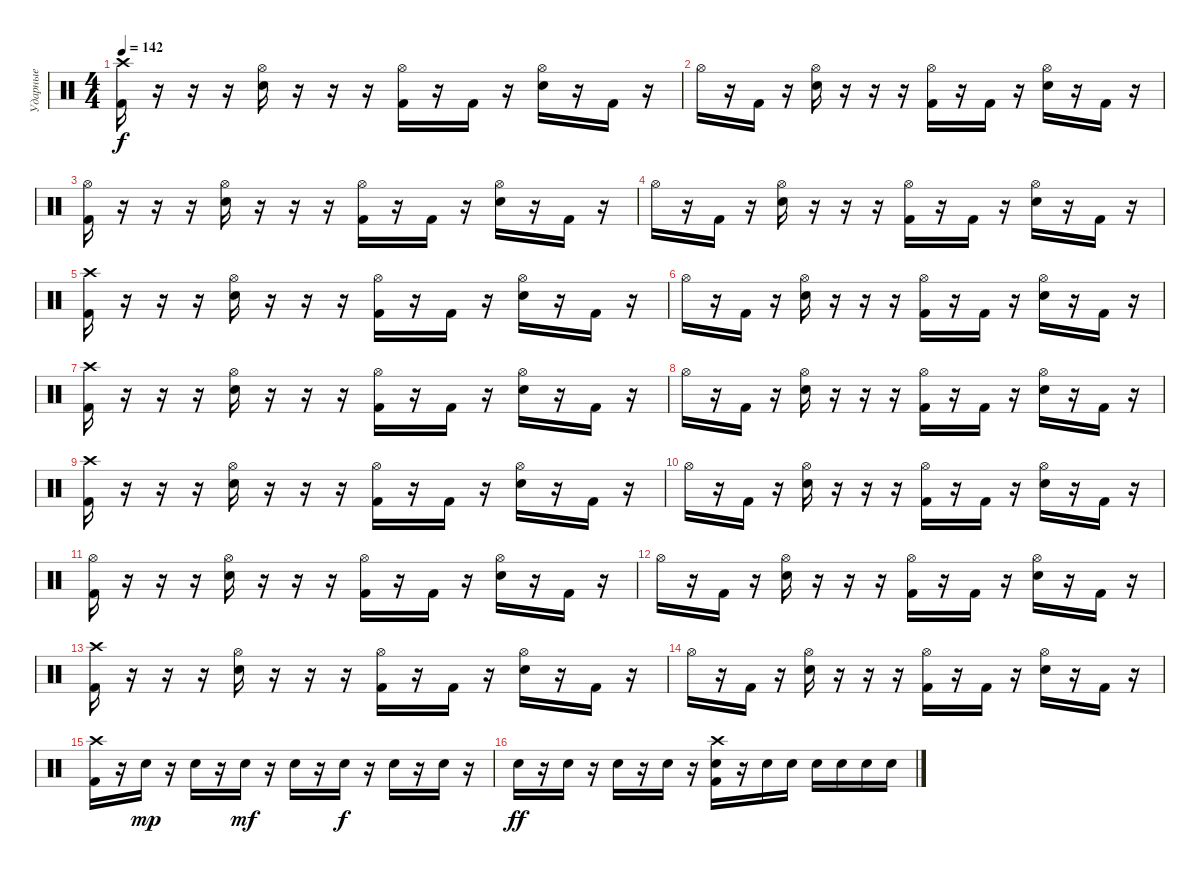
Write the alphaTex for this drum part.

\track ("Ударные" "Ударные") {instrument percussion}
\staff {score}
\articulation defaults
\ts (4 4)
\tempo 142
\clef neutral
\ks c
("Crash high (hit)" "Kick (hit) 2").16{dy f} r.16 r.16 r.16 ("Hi-Hat (open)" "Electric Snare (hit)").16 r.16 r.16 r.16 ("Hi-Hat (open)" "Kick (hit) 2").16 r.16 "Kick (hit) 2".16 r.16 ("Hi-Hat (open)" "Electric Snare (hit)").16 r.16 "Kick (hit) 2".16 r.16 |
"Hi-Hat (open)".16 r.16 "Kick (hit) 2".16 r.16 ("Hi-Hat (open)" "Electric Snare (hit)").16 r.16 r.16 r.16 ("Hi-Hat (open)" "Kick (hit) 2").16 r.16 "Kick (hit) 2".16 r.16 ("Hi-Hat (open)" "Electric Snare (hit)").16 r.16 "Kick (hit) 2".16 r.16 |
("Hi-Hat (open)" "Kick (hit) 2").16 r.16 r.16 r.16 ("Hi-Hat (open)" "Electric Snare (hit)").16 r.16 r.16 r.16 ("Hi-Hat (open)" "Kick (hit) 2").16 r.16 "Kick (hit) 2".16 r.16 ("Hi-Hat (open)" "Electric Snare (hit)").16 r.16 "Kick (hit) 2".16 r.16 |
"Hi-Hat (open)".16 r.16 "Kick (hit) 2".16 r.16 ("Hi-Hat (open)" "Electric Snare (hit)").16 r.16 r.16 r.16 ("Hi-Hat (open)" "Kick (hit) 2").16 r.16 "Kick (hit) 2".16 r.16 ("Hi-Hat (open)" "Electric Snare (hit)").16 r.16 "Kick (hit) 2".16 r.16 |
("Crash high (hit)" "Kick (hit) 2").16 r.16 r.16 r.16 ("Hi-Hat (open)" "Electric Snare (hit)").16 r.16 r.16 r.16 ("Hi-Hat (open)" "Kick (hit) 2").16 r.16 "Kick (hit) 2".16 r.16 ("Hi-Hat (open)" "Electric Snare (hit)").16 r.16 "Kick (hit) 2".16 r.16 |
"Hi-Hat (open)".16 r.16 "Kick (hit) 2".16 r.16 ("Hi-Hat (open)" "Electric Snare (hit)").16 r.16 r.16 r.16 ("Hi-Hat (open)" "Kick (hit) 2").16 r.16 "Kick (hit) 2".16 r.16 ("Hi-Hat (open)" "Electric Snare (hit)").16 r.16 "Kick (hit) 2".16 r.16 |
("Crash high (hit)" "Kick (hit) 2").16 r.16 r.16 r.16 ("Hi-Hat (open)" "Electric Snare (hit)").16 r.16 r.16 r.16 ("Hi-Hat (open)" "Kick (hit) 2").16 r.16 "Kick (hit) 2".16 r.16 ("Hi-Hat (open)" "Electric Snare (hit)").16 r.16 "Kick (hit) 2".16 r.16 |
"Hi-Hat (open)".16 r.16 "Kick (hit) 2".16 r.16 ("Hi-Hat (open)" "Electric Snare (hit)").16 r.16 r.16 r.16 ("Hi-Hat (open)" "Kick (hit) 2").16 r.16 "Kick (hit) 2".16 r.16 ("Hi-Hat (open)" "Electric Snare (hit)").16 r.16 "Kick (hit) 2".16 r.16 |
("Crash high (hit)" "Kick (hit) 2").16 r.16 r.16 r.16 ("Hi-Hat (open)" "Electric Snare (hit)").16 r.16 r.16 r.16 ("Hi-Hat (open)" "Kick (hit) 2").16 r.16 "Kick (hit) 2".16 r.16 ("Hi-Hat (open)" "Electric Snare (hit)").16 r.16 "Kick (hit) 2".16 r.16 |
"Hi-Hat (open)".16 r.16 "Kick (hit) 2".16 r.16 ("Hi-Hat (open)" "Electric Snare (hit)").16 r.16 r.16 r.16 ("Hi-Hat (open)" "Kick (hit) 2").16 r.16 "Kick (hit) 2".16 r.16 ("Hi-Hat (open)" "Electric Snare (hit)").16 r.16 "Kick (hit) 2".16 r.16 |
("Hi-Hat (open)" "Kick (hit) 2").16 r.16 r.16 r.16 ("Hi-Hat (open)" "Electric Snare (hit)").16 r.16 r.16 r.16 ("Hi-Hat (open)" "Kick (hit) 2").16 r.16 "Kick (hit) 2".16 r.16 ("Hi-Hat (open)" "Electric Snare (hit)").16 r.16 "Kick (hit) 2".16 r.16 |
"Hi-Hat (open)".16 r.16 "Kick (hit) 2".16 r.16 ("Hi-Hat (open)" "Electric Snare (hit)").16 r.16 r.16 r.16 ("Hi-Hat (open)" "Kick (hit) 2").16 r.16 "Kick (hit) 2".16 r.16 ("Hi-Hat (open)" "Electric Snare (hit)").16 r.16 "Kick (hit) 2".16 r.16 |
("Crash high (hit)" "Kick (hit) 2").16 r.16 r.16 r.16 ("Hi-Hat (open)" "Electric Snare (hit)").16 r.16 r.16 r.16 ("Hi-Hat (open)" "Kick (hit) 2").16 r.16 "Kick (hit) 2".16 r.16 ("Hi-Hat (open)" "Electric Snare (hit)").16 r.16 "Kick (hit) 2".16 r.16 |
"Hi-Hat (open)".16 r.16 "Kick (hit) 2".16 r.16 ("Hi-Hat (open)" "Electric Snare (hit)").16 r.16 r.16 r.16 ("Hi-Hat (open)" "Kick (hit) 2").16 r.16 "Kick (hit) 2".16 r.16 ("Hi-Hat (open)" "Electric Snare (hit)").16 r.16 "Kick (hit) 2".16 r.16 |
("Crash high (hit)" "Kick (hit) 2").16 r.16 "Electric Snare (hit)".16{dy mp} r.16 "Electric Snare (hit)".16 r.16 "Electric Snare (hit)".16{dy mf} r.16 "Electric Snare (hit)".16 r.16 "Electric Snare (hit)".16{dy f} r.16 "Electric Snare (hit)".16 r.16 "Electric Snare (hit)".16 r.16 |
"Electric Snare (hit)".16{dy ff} r.16 "Electric Snare (hit)".16 r.16 "Electric Snare (hit)".16 r.16 "Electric Snare (hit)".16 r.16 ("Crash high (hit)" "Electric Snare (hit)" "Kick (hit) 2").16 r.16 "Electric Snare (hit)".16 "Electric Snare (hit)".16 "Electric Snare (hit)".16 "Electric Snare (hit)".16 "Electric Snare (hit)".16 "Electric Snare (hit)".16
